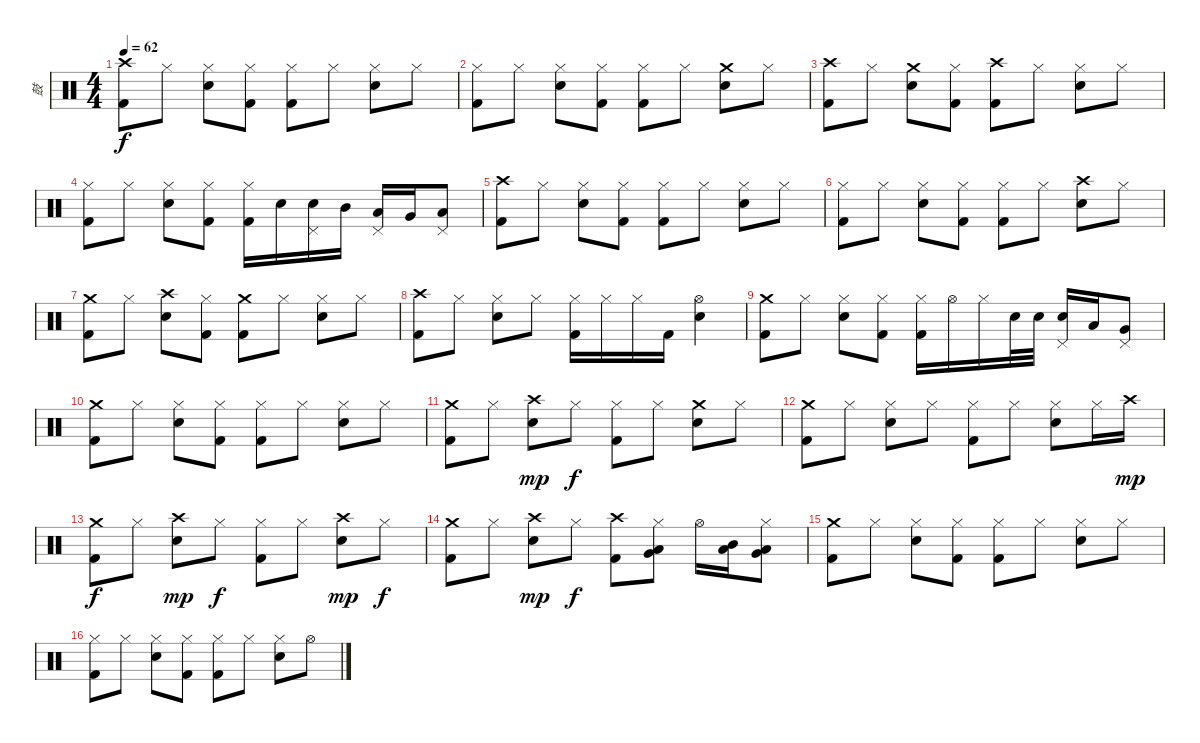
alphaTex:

\track ("鼓" "鼓") {instrument percussion}
\staff {score}
\articulation defaults
\ts (4 4)
\tempo 62
\clef neutral
\ks c
("Crash high (hit)" "Kick (hit) 2").8{dy f} "Hi-Hat (closed)".8 ("Hi-Hat (closed)" "Snare (hit) 2").8 ("Hi-Hat (closed)" "Kick (hit) 2").8 ("Hi-Hat (closed)" "Kick (hit) 2").8 "Hi-Hat (closed)".8 ("Hi-Hat (closed)" "Snare (hit) 2").8 "Hi-Hat (closed)".8 |
("Hi-Hat (closed)" "Kick (hit) 2").8 "Hi-Hat (closed)".8 ("Hi-Hat (closed)" "Snare (hit) 2").8 ("Hi-Hat (closed)" "Kick (hit) 2").8 ("Hi-Hat (closed)" "Kick (hit) 2").8 "Hi-Hat (closed)".8 ("Crash medium (hit)" "Snare (hit) 2").8 "Hi-Hat (closed)".8 |
("Crash high (hit)" "Kick (hit) 2").8 "Hi-Hat (closed)".8 ("Crash medium (hit)" "Snare (hit) 2").8 ("Hi-Hat (closed)" "Kick (hit) 2").8 ("Crash high (hit)" "Kick (hit) 2").8 "Hi-Hat (closed)".8 ("Hi-Hat (closed)" "Snare (hit) 2").8 "Hi-Hat (closed)".8 |
("Hi-Hat (closed)" "Kick (hit) 2").8 "Hi-Hat (closed)".8 ("Hi-Hat (closed)" "Snare (hit) 2").8 ("Hi-Hat (closed)" "Kick (hit) 2").8 ("Hi-Hat (closed)" "Kick (hit) 2").16 "Snare (hit) 2".16 ("Pedal Hi-Hat (hit)" "Snare (hit) 2").16 "Mid Tom (hit)".16 ("Pedal Hi-Hat (hit)" "Low Tom (hit)").16 "Very Low Tom (hit)".16 ("Pedal Hi-Hat (hit)" "Low Floor Tom (hit)").8 |
("Crash high (hit)" "Kick (hit) 2").8 "Hi-Hat (closed)".8 ("Hi-Hat (closed)" "Snare (hit) 2").8 ("Hi-Hat (closed)" "Kick (hit) 2").8 ("Hi-Hat (closed)" "Kick (hit) 2").8 "Hi-Hat (closed)".8 ("Hi-Hat (closed)" "Snare (hit) 2").8 "Hi-Hat (closed)".8 |
("Hi-Hat (closed)" "Kick (hit) 2").8 "Hi-Hat (closed)".8 ("Hi-Hat (closed)" "Snare (hit) 2").8 ("Hi-Hat (closed)" "Kick (hit) 2").8 ("Hi-Hat (closed)" "Kick (hit) 2").8 "Hi-Hat (closed)".8 ("Crash high (hit)" "Snare (hit) 2").8 "Hi-Hat (closed)".8 |
("Crash medium (hit)" "Kick (hit) 2").8 "Hi-Hat (closed)".8 ("Crash high (hit)" "Snare (hit) 2").8 ("Hi-Hat (closed)" "Kick (hit) 2").8 ("Crash medium (hit)" "Kick (hit) 2").8 "Hi-Hat (closed)".8 ("Hi-Hat (closed)" "Snare (hit) 2").8 "Hi-Hat (closed)".8 |
("Crash high (hit)" "Kick (hit) 2").8 "Hi-Hat (closed)".8 ("Hi-Hat (closed)" "Snare (hit) 2").8 "Hi-Hat (closed)".8 ("Hi-Hat (closed)" "Kick (hit) 2").16 "Hi-Hat (closed)".16 "Hi-Hat (closed)".16 "Kick (hit) 2".16 ("Hi-Hat (open)" "Snare (hit) 2").4 |
("Crash medium (hit)" "Kick (hit) 2").8 "Hi-Hat (closed)".8 ("Hi-Hat (closed)" "Snare (hit) 2").8 ("Hi-Hat (closed)" "Kick (hit) 2").8 ("Hi-Hat (closed)" "Kick (hit) 2").16 "Hi-Hat (open)".16 "Hi-Hat (closed)".16 "Snare (hit) 2".32 "Snare (hit) 2".32 ("Pedal Hi-Hat (hit)" "Snare (hit) 2").16 "Low Tom (hit)".16 ("Pedal Hi-Hat (hit)" "Very Low Tom (hit)").8 |
("Crash medium (hit)" "Kick (hit) 2").8 "Hi-Hat (closed)".8 ("Hi-Hat (closed)" "Snare (hit) 2").8 ("Hi-Hat (closed)" "Kick (hit) 2").8 ("Hi-Hat (closed)" "Kick (hit) 2").8 "Hi-Hat (closed)".8 ("Hi-Hat (closed)" "Snare (hit) 2").8 "Hi-Hat (closed)".8 |
("Crash medium (hit)" "Kick (hit) 2").8 "Hi-Hat (closed)".8 ("Crash high (hit)" "Snare (hit) 2").8{dy mp} "Hi-Hat (closed)".8{dy f} ("Hi-Hat (closed)" "Kick (hit) 2").8 "Hi-Hat (closed)".8 ("Crash medium (hit)" "Snare (hit) 2").8 "Hi-Hat (closed)".8 |
("Crash medium (hit)" "Kick (hit) 2").8 "Hi-Hat (closed)".8 ("Hi-Hat (closed)" "Snare (hit) 2").8 "Hi-Hat (closed)".8 ("Hi-Hat (closed)" "Kick (hit) 2").8 "Hi-Hat (closed)".8 ("Hi-Hat (closed)" "Snare (hit) 2").8 "Hi-Hat (closed)".16 "Crash high (hit)".16{dy mp} |
("Crash medium (hit)" "Kick (hit) 2").8{dy f} "Hi-Hat (closed)".8 ("Crash high (hit)" "Snare (hit) 2").8{dy mp} "Hi-Hat (closed)".8{dy f} ("Hi-Hat (closed)" "Kick (hit) 2").8 "Hi-Hat (closed)".8 ("Crash high (hit)" "Snare (hit) 2").8{dy mp} "Hi-Hat (closed)".8{dy f} |
("Crash medium (hit)" "Kick (hit) 2").8 "Hi-Hat (closed)".8 ("Crash high (hit)" "Snare (hit) 2").8{dy mp} "Hi-Hat (closed)".8{dy f} ("Crash high (hit)" "Kick (hit) 2").8 ("Hi-Hat (closed)" "Low Tom (hit)" "Very Low Tom (hit)").8 "Hi-Hat (open)".16 ("Mid Tom (hit)" "Low Tom (hit)").16 ("Hi-Hat (closed)" "Low Tom (hit)" "Very Low Tom (hit)").8 |
("Crash medium (hit)" "Kick (hit) 2").8 "Hi-Hat (closed)".8 ("Hi-Hat (closed)" "Snare (hit) 2").8 ("Hi-Hat (closed)" "Kick (hit) 2").8 ("Hi-Hat (closed)" "Kick (hit) 2").8 "Hi-Hat (closed)".8 ("Hi-Hat (closed)" "Snare (hit) 2").8 "Hi-Hat (closed)".8 |
("Hi-Hat (closed)" "Kick (hit) 2").8 "Hi-Hat (closed)".8 ("Hi-Hat (closed)" "Snare (hit) 2").8 ("Hi-Hat (closed)" "Kick (hit) 2").8 ("Hi-Hat (closed)" "Kick (hit) 2").8 "Hi-Hat (closed)".8 ("Hi-Hat (closed)" "Snare (hit) 2").8 "Hi-Hat (open)".8
